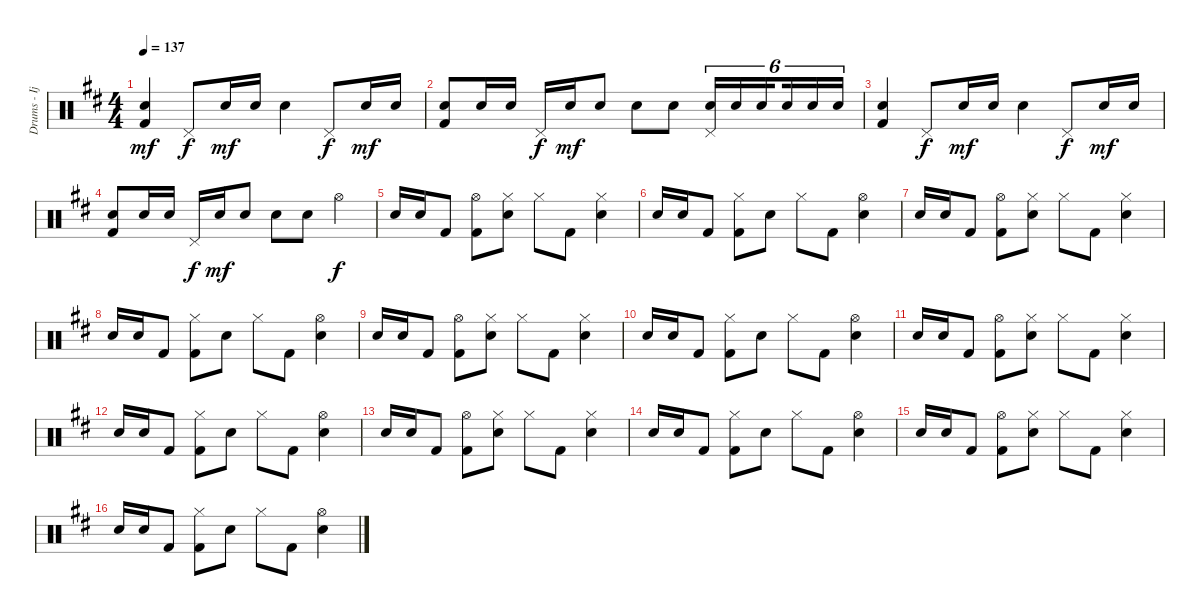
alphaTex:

\track ("Drums - Ijichi" "Drums - Ij") {instrument percussion}
\staff {score}
\articulation defaults
\ts (4 4)
\tempo 137
\clef neutral
\ks d
("Electric Snare (hit)" "Kick (hit) 2").4{dy mf} "Pedal Hi-Hat (hit)".8{dy f} "Electric Snare (hit)".16{dy mf} "Electric Snare (hit)".16 "Electric Snare (hit)".4 "Pedal Hi-Hat (hit)".8{dy f} "Electric Snare (hit)".16{dy mf} "Electric Snare (hit)".16 |
("Electric Snare (hit)" "Kick (hit) 2").8 "Electric Snare (hit)".16 "Electric Snare (hit)".16 "Pedal Hi-Hat (hit)".16{dy f} "Electric Snare (hit)".16{dy mf} "Electric Snare (hit)".8 "Electric Snare (hit)".8 "Electric Snare (hit)".8 ("Pedal Hi-Hat (hit)" "Electric Snare (hit)").16{tu (6 4)} "Electric Snare (hit)".16{tu (6 4)} "Electric Snare (hit)".16{tu (6 4) beam splitsecondary} "Electric Snare (hit)".16{tu (6 4)} "Electric Snare (hit)".16{tu (6 4)} "Electric Snare (hit)".16{tu (6 4)} |
("Electric Snare (hit)" "Kick (hit) 2").4 "Pedal Hi-Hat (hit)".8{dy f} "Electric Snare (hit)".16{dy mf} "Electric Snare (hit)".16 "Electric Snare (hit)".4 "Pedal Hi-Hat (hit)".8{dy f} "Electric Snare (hit)".16{dy mf} "Electric Snare (hit)".16 |
("Electric Snare (hit)" "Kick (hit) 2").8 "Electric Snare (hit)".16 "Electric Snare (hit)".16 "Pedal Hi-Hat (hit)".16{dy f} "Electric Snare (hit)".16{dy mf} "Electric Snare (hit)".8 "Electric Snare (hit)".8 "Electric Snare (hit)".8 "Hi-Hat (open)".4{dy f} |
"Electric Snare (hit)".16 "Electric Snare (hit)".16 "Kick (hit) 2".8 ("Hi-Hat (open)" "Kick (hit) 2").8 ("Hi-Hat (closed)" "Electric Snare (hit)").8 "Hi-Hat (closed)".8 "Kick (hit) 2".8 ("Hi-Hat (closed)" "Electric Snare (hit)").4 |
"Electric Snare (hit)".16 "Electric Snare (hit)".16 "Kick (hit) 2".8 ("Hi-Hat (closed)" "Kick (hit) 2").8 "Electric Snare (hit)".8 "Hi-Hat (closed)".8 "Kick (hit) 2".8 ("Hi-Hat (open)" "Electric Snare (hit)").4 |
"Electric Snare (hit)".16 "Electric Snare (hit)".16 "Kick (hit) 2".8 ("Hi-Hat (open)" "Kick (hit) 2").8 ("Hi-Hat (closed)" "Electric Snare (hit)").8 "Hi-Hat (closed)".8 "Kick (hit) 2".8 ("Hi-Hat (closed)" "Electric Snare (hit)").4 |
"Electric Snare (hit)".16 "Electric Snare (hit)".16 "Kick (hit) 2".8 ("Hi-Hat (closed)" "Kick (hit) 2").8 "Electric Snare (hit)".8 "Hi-Hat (closed)".8 "Kick (hit) 2".8 ("Hi-Hat (open)" "Electric Snare (hit)").4 |
"Electric Snare (hit)".16 "Electric Snare (hit)".16 "Kick (hit) 2".8 ("Hi-Hat (open)" "Kick (hit) 2").8 ("Hi-Hat (closed)" "Electric Snare (hit)").8 "Hi-Hat (closed)".8 "Kick (hit) 2".8 ("Hi-Hat (closed)" "Electric Snare (hit)").4 |
"Electric Snare (hit)".16 "Electric Snare (hit)".16 "Kick (hit) 2".8 ("Hi-Hat (closed)" "Kick (hit) 2").8 "Electric Snare (hit)".8 "Hi-Hat (closed)".8 "Kick (hit) 2".8 ("Hi-Hat (open)" "Electric Snare (hit)").4 |
"Electric Snare (hit)".16 "Electric Snare (hit)".16 "Kick (hit) 2".8 ("Hi-Hat (open)" "Kick (hit) 2").8 ("Hi-Hat (closed)" "Electric Snare (hit)").8 "Hi-Hat (closed)".8 "Kick (hit) 2".8 ("Hi-Hat (closed)" "Electric Snare (hit)").4 |
"Electric Snare (hit)".16 "Electric Snare (hit)".16 "Kick (hit) 2".8 ("Hi-Hat (closed)" "Kick (hit) 2").8 "Electric Snare (hit)".8 "Hi-Hat (closed)".8 "Kick (hit) 2".8 ("Hi-Hat (open)" "Electric Snare (hit)").4 |
"Electric Snare (hit)".16 "Electric Snare (hit)".16 "Kick (hit) 2".8 ("Hi-Hat (open)" "Kick (hit) 2").8 ("Hi-Hat (closed)" "Electric Snare (hit)").8 "Hi-Hat (closed)".8 "Kick (hit) 2".8 ("Hi-Hat (closed)" "Electric Snare (hit)").4 |
"Electric Snare (hit)".16 "Electric Snare (hit)".16 "Kick (hit) 2".8 ("Hi-Hat (closed)" "Kick (hit) 2").8 "Electric Snare (hit)".8 "Hi-Hat (closed)".8 "Kick (hit) 2".8 ("Hi-Hat (open)" "Electric Snare (hit)").4 |
"Electric Snare (hit)".16 "Electric Snare (hit)".16 "Kick (hit) 2".8 ("Hi-Hat (open)" "Kick (hit) 2").8 ("Hi-Hat (closed)" "Electric Snare (hit)").8 "Hi-Hat (closed)".8 "Kick (hit) 2".8 ("Hi-Hat (closed)" "Electric Snare (hit)").4 |
"Electric Snare (hit)".16 "Electric Snare (hit)".16 "Kick (hit) 2".8 ("Hi-Hat (closed)" "Kick (hit) 2").8 "Electric Snare (hit)".8 "Hi-Hat (closed)".8 "Kick (hit) 2".8 ("Hi-Hat (open)" "Electric Snare (hit)").4
